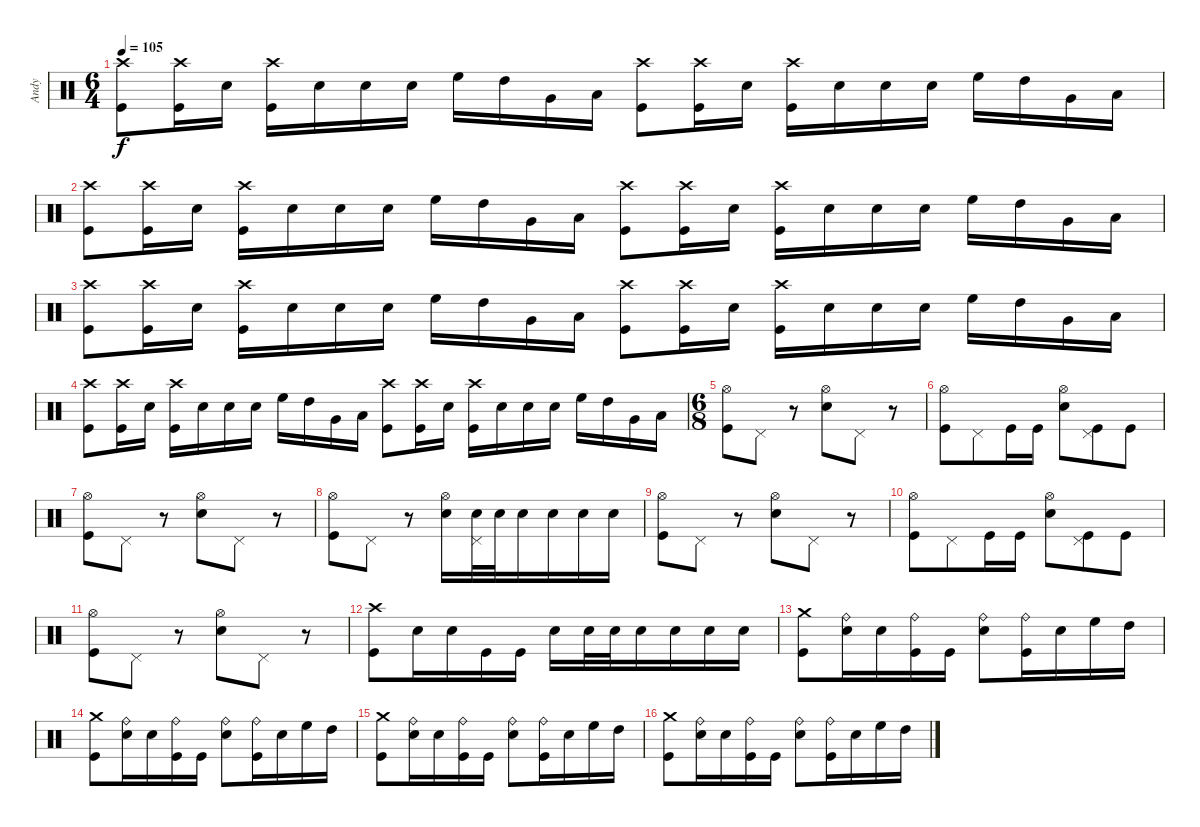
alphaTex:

\track ("Andy" "Andy") {instrument percussion}
\staff {score}
\articulation defaults
\ts (6 4)
\tempo 105
\clef neutral
\ks c
("Kick (hit)" "Crash high (hit)").8{dy f} ("Kick (hit)" "Crash high (hit)").16 "Snare (hit) 2".16 ("Kick (hit)" "Crash high (hit)").16 "Snare (hit) 2".16 "Snare (hit) 2".16 "Snare (hit) 2".16 "High Floor Tom (hit)".16 "High Tom (hit)".16 "Very Low Tom (hit)".16 "Low Floor Tom (hit)".16 ("Kick (hit)" "Crash high (hit)").8 ("Kick (hit)" "Crash high (hit)").16 "Snare (hit) 2".16 ("Kick (hit)" "Crash high (hit)").16 "Snare (hit) 2".16 "Snare (hit) 2".16 "Snare (hit) 2".16 "High Floor Tom (hit)".16 "High Tom (hit)".16 "Very Low Tom (hit)".16 "Low Floor Tom (hit)".16 |
("Kick (hit)" "Crash high (hit)").8 ("Kick (hit)" "Crash high (hit)").16 "Snare (hit) 2".16 ("Kick (hit)" "Crash high (hit)").16 "Snare (hit) 2".16 "Snare (hit) 2".16 "Snare (hit) 2".16 "High Floor Tom (hit)".16 "High Tom (hit)".16 "Very Low Tom (hit)".16 "Low Floor Tom (hit)".16 ("Kick (hit)" "Crash high (hit)").8 ("Kick (hit)" "Crash high (hit)").16 "Snare (hit) 2".16 ("Kick (hit)" "Crash high (hit)").16 "Snare (hit) 2".16 "Snare (hit) 2".16 "Snare (hit) 2".16 "High Floor Tom (hit)".16 "High Tom (hit)".16 "Very Low Tom (hit)".16 "Low Floor Tom (hit)".16 |
("Kick (hit)" "Crash high (hit)").8 ("Kick (hit)" "Crash high (hit)").16 "Snare (hit) 2".16 ("Kick (hit)" "Crash high (hit)").16 "Snare (hit) 2".16 "Snare (hit) 2".16 "Snare (hit) 2".16 "High Floor Tom (hit)".16 "High Tom (hit)".16 "Very Low Tom (hit)".16 "Low Floor Tom (hit)".16 ("Kick (hit)" "Crash high (hit)").8 ("Kick (hit)" "Crash high (hit)").16 "Snare (hit) 2".16 ("Kick (hit)" "Crash high (hit)").16 "Snare (hit) 2".16 "Snare (hit) 2".16 "Snare (hit) 2".16 "High Floor Tom (hit)".16 "High Tom (hit)".16 "Very Low Tom (hit)".16 "Low Floor Tom (hit)".16 |
("Kick (hit)" "Crash high (hit)").8 ("Kick (hit)" "Crash high (hit)").16 "Snare (hit) 2".16 ("Kick (hit)" "Crash high (hit)").16 "Snare (hit) 2".16 "Snare (hit) 2".16 "Snare (hit) 2".16 "High Floor Tom (hit)".16 "High Tom (hit)".16 "Very Low Tom (hit)".16 "Low Floor Tom (hit)".16 ("Kick (hit)" "Crash high (hit)").8 ("Kick (hit)" "Crash high (hit)").16 "Snare (hit) 2".16 ("Kick (hit)" "Crash high (hit)").16 "Snare (hit) 2".16 "Snare (hit) 2".16 "Snare (hit) 2".16 "High Floor Tom (hit)".16 "High Tom (hit)".16 "Very Low Tom (hit)".16 "Low Floor Tom (hit)".16 |
\ts (6 8)
("Kick (hit)" "Hi-Hat (open)").8 "Pedal Hi-Hat (hit)".8 r.8 ("Snare (hit) 2" "Hi-Hat (open)").8 "Pedal Hi-Hat (hit)".8 r.8 |
("Kick (hit)" "Hi-Hat (open)").8 "Pedal Hi-Hat (hit)".8 "Kick (hit)".16 "Kick (hit)".16 ("Snare (hit) 2" "Hi-Hat (open)").8 ("Kick (hit)" "Pedal Hi-Hat (hit)").8 "Kick (hit)".8 |
("Kick (hit)" "Hi-Hat (open)").8 "Pedal Hi-Hat (hit)".8 r.8 ("Snare (hit) 2" "Hi-Hat (open)").8 "Pedal Hi-Hat (hit)".8 r.8 |
("Kick (hit)" "Hi-Hat (open)").8 "Pedal Hi-Hat (hit)".8 r.8 ("Snare (hit) 2" "Hi-Hat (open)").16 ("Snare (hit) 2" "Pedal Hi-Hat (hit)").32 "Snare (hit) 2".32 "Snare (hit) 2".16 "Snare (hit) 2".16 "Snare (hit) 2".16 "Snare (hit) 2".16 |
("Kick (hit)" "Hi-Hat (open)").8 "Pedal Hi-Hat (hit)".8 r.8 ("Snare (hit) 2" "Hi-Hat (open)").8 "Pedal Hi-Hat (hit)".8 r.8 |
("Kick (hit)" "Hi-Hat (open)").8 "Pedal Hi-Hat (hit)".8 "Kick (hit)".16 "Kick (hit)".16 ("Snare (hit) 2" "Hi-Hat (open)").8 ("Kick (hit)" "Pedal Hi-Hat (hit)").8 "Kick (hit)".8 |
("Kick (hit)" "Hi-Hat (open)").8 "Pedal Hi-Hat (hit)".8 r.8 ("Snare (hit) 2" "Hi-Hat (open)").8 "Pedal Hi-Hat (hit)".8 r.8 |
("Kick (hit)" "Crash high (hit)").8 "Snare (hit) 2".16 "Snare (hit) 2".16 "Kick (hit)".16 "Kick (hit)".16 "Snare (hit) 2".16 "Snare (hit) 2".32 "Snare (hit) 2".32 "Snare (hit) 2".16 "Snare (hit) 2".16 "Snare (hit) 2".16 "Snare (hit) 2".16 |
("Kick (hit)" "Crash medium (hit)").8 ("Snare (hit) 2" "Ride (bell)").16 "Snare (hit) 2".16 ("Kick (hit)" "Ride (bell)").16 "Kick (hit)".16 ("Ride (bell)" "Snare (hit) 2").8 ("Kick (hit)" "Ride (bell)").16 "Snare (hit) 2".16 "High Floor Tom (hit)".16 "High Tom (hit)".16 |
("Kick (hit)" "Crash medium (hit)").8 ("Snare (hit) 2" "Ride (bell)").16 "Snare (hit) 2".16 ("Kick (hit)" "Ride (bell)").16 "Kick (hit)".16 ("Ride (bell)" "Snare (hit) 2").8 ("Kick (hit)" "Ride (bell)").16 "Snare (hit) 2".16 "High Floor Tom (hit)".16 "High Tom (hit)".16 |
("Kick (hit)" "Crash medium (hit)").8 ("Snare (hit) 2" "Ride (bell)").16 "Snare (hit) 2".16 ("Kick (hit)" "Ride (bell)").16 "Kick (hit)".16 ("Ride (bell)" "Snare (hit) 2").8 ("Kick (hit)" "Ride (bell)").16 "Snare (hit) 2".16 "High Floor Tom (hit)".16 "High Tom (hit)".16 |
("Kick (hit)" "Crash medium (hit)").8 ("Snare (hit) 2" "Ride (bell)").16 "Snare (hit) 2".16 ("Kick (hit)" "Ride (bell)").16 "Kick (hit)".16 ("Ride (bell)" "Snare (hit) 2").8 ("Kick (hit)" "Ride (bell)").16 "Snare (hit) 2".16 "High Floor Tom (hit)".16 "High Tom (hit)".16
